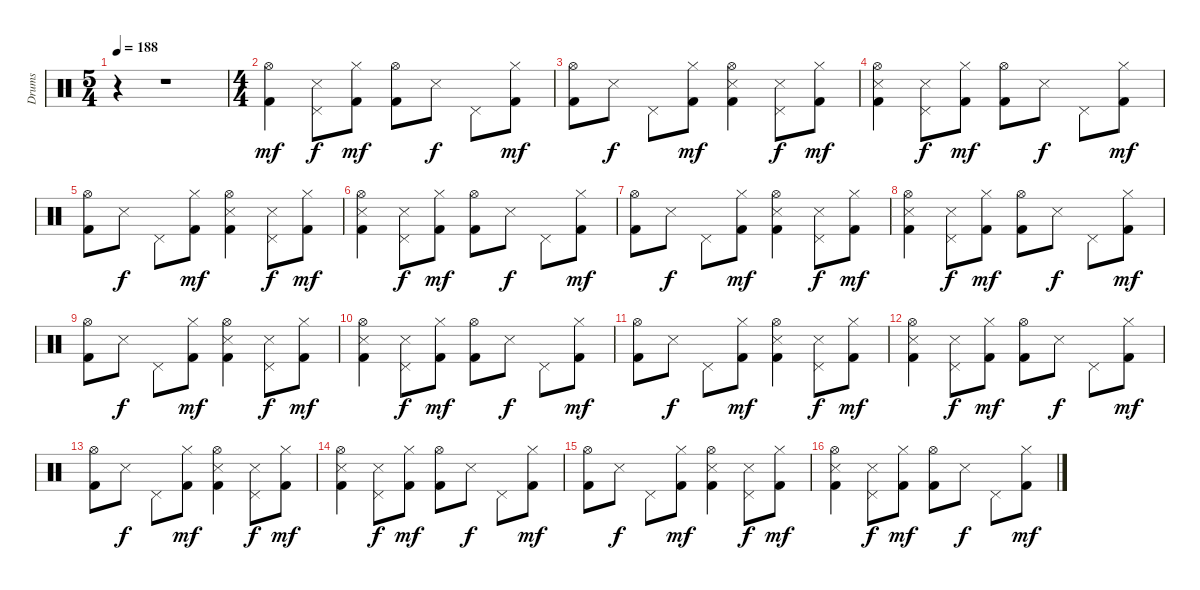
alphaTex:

\track ("Drums" "Drums") {instrument percussion}
\staff {score}
\articulation defaults
\ts (5 4)
\tempo 188
\clef neutral
\ks c
r.4{dy mf} r.1 |
\ts (4 4)
("Hi-Hat (open)" "Kick (hit) 2").4 ("Pedal Hi-Hat (hit)" "Snare (side stick) 3").8{dy f} ("Hi-Hat (closed)" "Kick (hit) 2").8{dy mf} ("Hi-Hat (open)" "Kick (hit) 2").8 "Snare (side stick) 3".8{dy f} "Pedal Hi-Hat (hit)".8 ("Hi-Hat (closed)" "Kick (hit) 2").8{dy mf} |
("Hi-Hat (open)" "Kick (hit) 2").8 "Snare (side stick) 3".8{dy f} "Pedal Hi-Hat (hit)".8 ("Hi-Hat (closed)" "Kick (hit) 2").8{dy mf} ("Hi-Hat (open)" "Snare (side stick) 3" "Kick (hit) 2").4 ("Pedal Hi-Hat (hit)" "Snare (side stick) 3").8{dy f} ("Hi-Hat (closed)" "Kick (hit) 2").8{dy mf} |
("Hi-Hat (open)" "Snare (side stick) 3" "Kick (hit) 2").4 ("Pedal Hi-Hat (hit)" "Snare (side stick) 3").8{dy f} ("Hi-Hat (closed)" "Kick (hit) 2").8{dy mf} ("Hi-Hat (open)" "Kick (hit) 2").8 "Snare (side stick) 3".8{dy f} "Pedal Hi-Hat (hit)".8 ("Hi-Hat (closed)" "Kick (hit) 2").8{dy mf} |
("Hi-Hat (open)" "Kick (hit) 2").8 "Snare (side stick) 3".8{dy f} "Pedal Hi-Hat (hit)".8 ("Hi-Hat (closed)" "Kick (hit) 2").8{dy mf} ("Hi-Hat (open)" "Snare (side stick) 3" "Kick (hit) 2").4 ("Pedal Hi-Hat (hit)" "Snare (side stick) 3").8{dy f} ("Hi-Hat (closed)" "Kick (hit) 2").8{dy mf} |
("Hi-Hat (open)" "Snare (side stick) 3" "Kick (hit) 2").4 ("Pedal Hi-Hat (hit)" "Snare (side stick) 3").8{dy f} ("Hi-Hat (closed)" "Kick (hit) 2").8{dy mf} ("Hi-Hat (open)" "Kick (hit) 2").8 "Snare (side stick) 3".8{dy f} "Pedal Hi-Hat (hit)".8 ("Hi-Hat (closed)" "Kick (hit) 2").8{dy mf} |
("Hi-Hat (open)" "Kick (hit) 2").8 "Snare (side stick) 3".8{dy f} "Pedal Hi-Hat (hit)".8 ("Hi-Hat (closed)" "Kick (hit) 2").8{dy mf} ("Hi-Hat (open)" "Snare (side stick) 3" "Kick (hit) 2").4 ("Pedal Hi-Hat (hit)" "Snare (side stick) 3").8{dy f} ("Hi-Hat (closed)" "Kick (hit) 2").8{dy mf} |
("Hi-Hat (open)" "Snare (side stick) 3" "Kick (hit) 2").4 ("Pedal Hi-Hat (hit)" "Snare (side stick) 3").8{dy f} ("Hi-Hat (closed)" "Kick (hit) 2").8{dy mf} ("Hi-Hat (open)" "Kick (hit) 2").8 "Snare (side stick) 3".8{dy f} "Pedal Hi-Hat (hit)".8 ("Hi-Hat (closed)" "Kick (hit) 2").8{dy mf} |
("Hi-Hat (open)" "Kick (hit) 2").8 "Snare (side stick) 3".8{dy f} "Pedal Hi-Hat (hit)".8 ("Hi-Hat (closed)" "Kick (hit) 2").8{dy mf} ("Hi-Hat (open)" "Snare (side stick) 3" "Kick (hit) 2").4 ("Pedal Hi-Hat (hit)" "Snare (side stick) 3").8{dy f} ("Hi-Hat (closed)" "Kick (hit) 2").8{dy mf} |
("Hi-Hat (open)" "Snare (side stick) 3" "Kick (hit) 2").4 ("Pedal Hi-Hat (hit)" "Snare (side stick) 3").8{dy f} ("Hi-Hat (closed)" "Kick (hit) 2").8{dy mf} ("Hi-Hat (open)" "Kick (hit) 2").8 "Snare (side stick) 3".8{dy f} "Pedal Hi-Hat (hit)".8 ("Hi-Hat (closed)" "Kick (hit) 2").8{dy mf} |
("Hi-Hat (open)" "Kick (hit) 2").8 "Snare (side stick) 3".8{dy f} "Pedal Hi-Hat (hit)".8 ("Hi-Hat (closed)" "Kick (hit) 2").8{dy mf} ("Hi-Hat (open)" "Snare (side stick) 3" "Kick (hit) 2").4 ("Pedal Hi-Hat (hit)" "Snare (side stick) 3").8{dy f} ("Hi-Hat (closed)" "Kick (hit) 2").8{dy mf} |
("Hi-Hat (open)" "Snare (side stick) 3" "Kick (hit) 2").4 ("Pedal Hi-Hat (hit)" "Snare (side stick) 3").8{dy f} ("Hi-Hat (closed)" "Kick (hit) 2").8{dy mf} ("Hi-Hat (open)" "Kick (hit) 2").8 "Snare (side stick) 3".8{dy f} "Pedal Hi-Hat (hit)".8 ("Hi-Hat (closed)" "Kick (hit) 2").8{dy mf} |
("Hi-Hat (open)" "Kick (hit) 2").8 "Snare (side stick) 3".8{dy f} "Pedal Hi-Hat (hit)".8 ("Hi-Hat (closed)" "Kick (hit) 2").8{dy mf} ("Hi-Hat (open)" "Snare (side stick) 3" "Kick (hit) 2").4 ("Pedal Hi-Hat (hit)" "Snare (side stick) 3").8{dy f} ("Hi-Hat (closed)" "Kick (hit) 2").8{dy mf} |
("Hi-Hat (open)" "Snare (side stick) 3" "Kick (hit) 2").4 ("Pedal Hi-Hat (hit)" "Snare (side stick) 3").8{dy f} ("Hi-Hat (closed)" "Kick (hit) 2").8{dy mf} ("Hi-Hat (open)" "Kick (hit) 2").8 "Snare (side stick) 3".8{dy f} "Pedal Hi-Hat (hit)".8 ("Hi-Hat (closed)" "Kick (hit) 2").8{dy mf} |
("Hi-Hat (open)" "Kick (hit) 2").8 "Snare (side stick) 3".8{dy f} "Pedal Hi-Hat (hit)".8 ("Hi-Hat (closed)" "Kick (hit) 2").8{dy mf} ("Hi-Hat (open)" "Snare (side stick) 3" "Kick (hit) 2").4 ("Pedal Hi-Hat (hit)" "Snare (side stick) 3").8{dy f} ("Hi-Hat (closed)" "Kick (hit) 2").8{dy mf} |
("Hi-Hat (open)" "Snare (side stick) 3" "Kick (hit) 2").4 ("Pedal Hi-Hat (hit)" "Snare (side stick) 3").8{dy f} ("Hi-Hat (closed)" "Kick (hit) 2").8{dy mf} ("Hi-Hat (open)" "Kick (hit) 2").8 "Snare (side stick) 3".8{dy f} "Pedal Hi-Hat (hit)".8 ("Hi-Hat (closed)" "Kick (hit) 2").8{dy mf}
